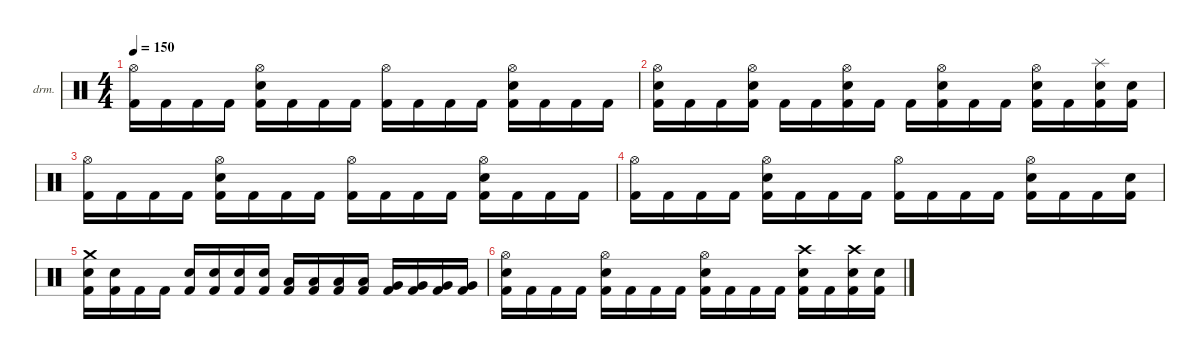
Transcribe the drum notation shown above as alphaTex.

\defaultSystemsLayout 4
\hideDynamics
\bracketExtendMode nobrackets
\firstSystemTrackNameOrientation horizontal
\otherSystemsTrackNameOrientation horizontal
\track ("Drumkit" "drm.") {instrument percussion}
\staff {score}
\articulation defaults
\ts (4 4)
\tempo 150
\clef neutral
\ks c
("Hi-Hat (open)" "Kick (hit) 2").16{dy ff} "Kick (hit) 2".16 "Kick (hit) 2".16 "Kick (hit) 2".16 ("Hi-Hat (open)" "Snare (hit) 2" "Kick (hit) 2").16 "Kick (hit) 2".16 "Kick (hit) 2".16 "Kick (hit) 2".16 ("Hi-Hat (open)" "Kick (hit) 2").16 "Kick (hit) 2".16 "Kick (hit) 2".16 "Kick (hit) 2".16 ("Hi-Hat (open)" "Snare (hit) 2" "Kick (hit) 2").16 "Kick (hit) 2".16 "Kick (hit) 2".16 "Kick (hit) 2".16 |
("Hi-Hat (open)" "Snare (hit) 2" "Kick (hit) 2").16 "Kick (hit) 2".16 "Kick (hit) 2".16 ("Hi-Hat (open)" "Snare (hit) 2" "Kick (hit) 2").16 "Kick (hit) 2".16 "Kick (hit) 2".16 ("Hi-Hat (open)" "Snare (hit) 2" "Kick (hit) 2").16 "Kick (hit) 2".16 "Kick (hit) 2".16 ("Hi-Hat (open)" "Snare (hit) 2" "Kick (hit) 2").16 "Kick (hit) 2".16 "Kick (hit) 2".16 ("Hi-Hat (open)" "Snare (hit) 2" "Kick (hit) 2").16 "Kick (hit) 2".16 ("Splash (hit)" "Snare (hit) 2" "Kick (hit) 2").16 ("Snare (hit) 2" "Kick (hit) 2").16 |
("Hi-Hat (open)" "Kick (hit) 2").16 "Kick (hit) 2".16 "Kick (hit) 2".16 "Kick (hit) 2".16 ("Hi-Hat (open)" "Snare (hit) 2" "Kick (hit) 2").16 "Kick (hit) 2".16 "Kick (hit) 2".16 "Kick (hit) 2".16 ("Hi-Hat (open)" "Kick (hit) 2").16 "Kick (hit) 2".16 "Kick (hit) 2".16 "Kick (hit) 2".16 ("Hi-Hat (open)" "Snare (hit) 2" "Kick (hit) 2").16 "Kick (hit) 2".16 "Kick (hit) 2".16 "Kick (hit) 2".16 |
("Hi-Hat (open)" "Kick (hit) 2").16 "Kick (hit) 2".16 "Kick (hit) 2".16 "Kick (hit) 2".16 ("Hi-Hat (open)" "Snare (hit) 2" "Kick (hit) 2").16 "Kick (hit) 2".16 "Kick (hit) 2".16 "Kick (hit) 2".16 ("Hi-Hat (open)" "Kick (hit) 2").16 "Kick (hit) 2".16 "Kick (hit) 2".16 "Kick (hit) 2".16 ("Hi-Hat (open)" "Snare (hit) 2" "Kick (hit) 2").16 "Kick (hit) 2".16 "Kick (hit) 2".16 ("Snare (hit) 2" "Kick (hit) 2").16 |
("Crash medium (hit)" "Snare (hit) 2" "Kick (hit) 2").16{dy mf} ("Snare (hit) 2" "Kick (hit) 2").16 "Kick (hit) 2".16 "Kick (hit) 2".16 ("Snare (hit) 2" "Kick (hit) 2").16 ("Snare (hit) 2" "Kick (hit) 2").16 ("Snare (hit) 2" "Kick (hit) 2").16 ("Snare (hit) 2" "Kick (hit) 2").16 ("Low Tom (hit)" "Kick (hit) 2").16 ("Low Tom (hit)" "Kick (hit) 2").16 ("Low Tom (hit)" "Kick (hit) 2").16 ("Low Tom (hit)" "Kick (hit) 2").16 ("Very Low Tom (hit)" "Kick (hit) 2").16 ("Very Low Tom (hit)" "Kick (hit) 2").16 ("Very Low Tom (hit)" "Kick (hit) 2").16 ("Very Low Tom (hit)" "Kick (hit) 2").16 |
("Hi-Hat (open)" "Snare (hit) 2" "Kick (hit) 2").16 "Kick (hit) 2".16 "Kick (hit) 2".16 "Kick (hit) 2".16 ("Hi-Hat (open)" "Snare (hit) 2" "Kick (hit) 2").16 "Kick (hit) 2".16 "Kick (hit) 2".16 "Kick (hit) 2".16 ("Hi-Hat (open)" "Snare (hit) 2" "Kick (hit) 2").16 "Kick (hit) 2".16 "Kick (hit) 2".16 "Kick (hit) 2".16 ("Crash high (hit)" "Snare (hit) 2" "Kick (hit) 2").16 "Kick (hit) 2".16 ("Crash high (hit)" "Snare (hit) 2" "Kick (hit) 2").16 ("Snare (hit) 2" "Kick (hit) 2").16
